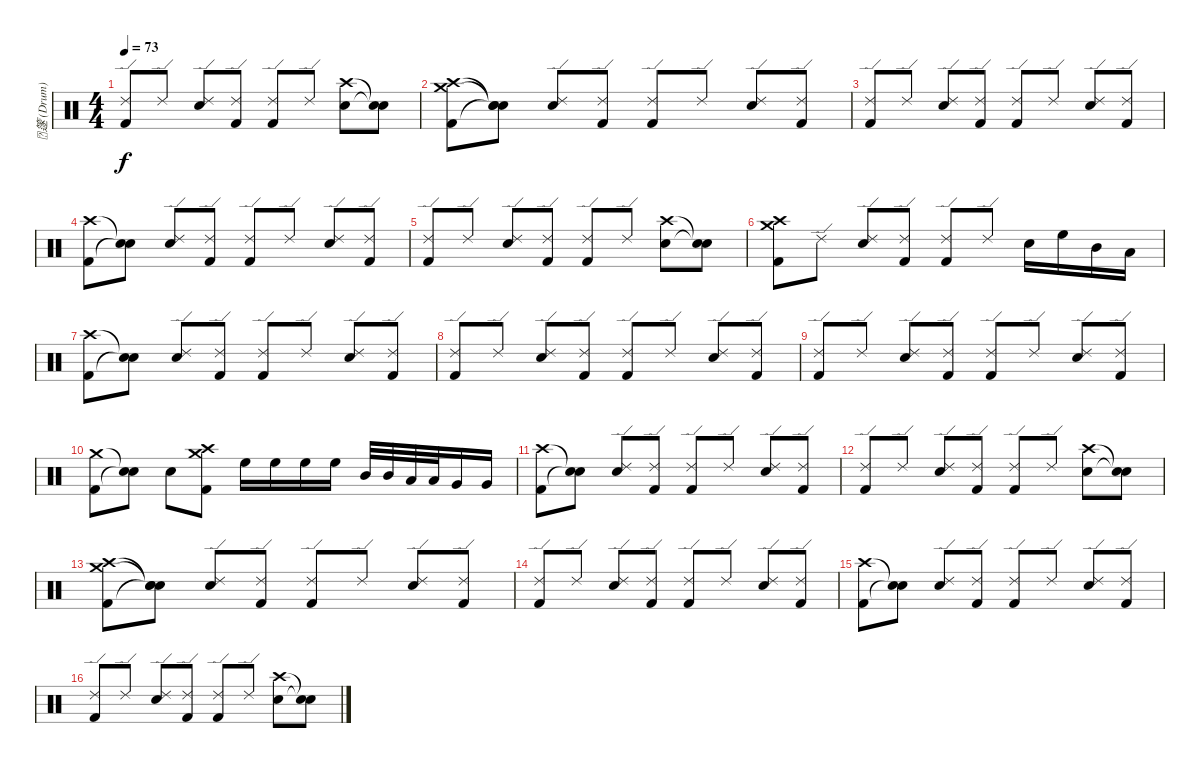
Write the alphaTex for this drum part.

\track ("篴 (Drum)" "篴 (Drum)") {instrument percussion}
\staff {score}
\articulation defaults
\ts (4 4)
\tempo 73
\clef neutral
\ks c
("Ride (edge) 2" "Kick (hit) 2").8{dy f} "Ride (edge) 2".8 ("Ride (edge) 2" "Electric Snare (hit)").8 ("Ride (edge) 2" "Kick (hit) 2").8 ("Ride (edge) 2" "Kick (hit) 2").8 "Ride (edge) 2".8 ("Crash high (hit)" "Electric Snare (hit)").8 ("Snare (hit)"{t} "Snare (hit)"{t}).8 |
("Crash high (hit)" "Crash medium (hit)" "Kick (hit) 2").8 ("Snare (hit)"{t} "Snare (hit)"{t} "Snare (hit)"{t}).8 ("Ride (edge) 2" "Electric Snare (hit)").8 ("Ride (edge) 2" "Kick (hit) 2").8 ("Ride (edge) 2" "Kick (hit) 2").8 "Ride (edge) 2".8 ("Ride (edge) 2" "Electric Snare (hit)").8 ("Ride (edge) 2" "Kick (hit) 2").8 |
("Ride (edge) 2" "Kick (hit) 2").8 "Ride (edge) 2".8 ("Ride (edge) 2" "Electric Snare (hit)").8 ("Ride (edge) 2" "Kick (hit) 2").8 ("Ride (edge) 2" "Kick (hit) 2").8 "Ride (edge) 2".8 ("Ride (edge) 2" "Electric Snare (hit)").8 ("Ride (edge) 2" "Kick (hit) 2").8 |
("Crash high (hit)" "Kick (hit) 2").8 ("Snare (hit)"{t} "Snare (hit)"{t}).8 ("Ride (edge) 2" "Electric Snare (hit)").8 ("Ride (edge) 2" "Kick (hit) 2").8 ("Ride (edge) 2" "Kick (hit) 2").8 "Ride (edge) 2".8 ("Ride (edge) 2" "Electric Snare (hit)").8 ("Ride (edge) 2" "Kick (hit) 2").8 |
("Ride (edge) 2" "Kick (hit) 2").8 "Ride (edge) 2".8 ("Ride (edge) 2" "Electric Snare (hit)").8 ("Ride (edge) 2" "Kick (hit) 2").8 ("Ride (edge) 2" "Kick (hit) 2").8 "Ride (edge) 2".8 ("Crash high (hit)" "Electric Snare (hit)").8 ("Snare (hit)"{t} "Snare (hit)"{t}).8 |
("Crash high (hit)" "Crash medium (hit)" "Kick (hit) 2").8 "Ride (edge) 2".8 ("Ride (edge) 2" "Electric Snare (hit)").8 ("Ride (edge) 2" "Kick (hit) 2").8 ("Ride (edge) 2" "Kick (hit) 2").8 "Ride (edge) 2".8 "Electric Snare (hit)".16 "High Floor Tom (hit)".16 "Mid Tom (hit)".16 "Low Tom (hit)".16 |
("Crash high (hit)" "Kick (hit) 2").8 ("Snare (hit)"{t} "Snare (hit)"{t}).8 ("Ride (edge) 2" "Electric Snare (hit)").8 ("Ride (edge) 2" "Kick (hit) 2").8 ("Ride (edge) 2" "Kick (hit) 2").8 "Ride (edge) 2".8 ("Ride (edge) 2" "Electric Snare (hit)").8 ("Ride (edge) 2" "Kick (hit) 2").8 |
("Ride (edge) 2" "Kick (hit) 2").8 "Ride (edge) 2".8 ("Ride (edge) 2" "Electric Snare (hit)").8 ("Ride (edge) 2" "Kick (hit) 2").8 ("Ride (edge) 2" "Kick (hit) 2").8 "Ride (edge) 2".8 ("Ride (edge) 2" "Electric Snare (hit)").8 ("Ride (edge) 2" "Kick (hit) 2").8 |
("Ride (edge) 2" "Kick (hit) 2").8 "Ride (edge) 2".8 ("Ride (edge) 2" "Electric Snare (hit)").8 ("Ride (edge) 2" "Kick (hit) 2").8 ("Ride (edge) 2" "Kick (hit) 2").8 "Ride (edge) 2".8 ("Ride (edge) 2" "Electric Snare (hit)").8 ("Ride (edge) 2" "Kick (hit) 2").8 |
("Crash medium (hit)" "Kick (hit) 2").8 ("Snare (hit)"{t} "Snare (hit)"{t}).8 "Electric Snare (hit)".8 ("Crash high (hit)" "Crash medium (hit)" "Kick (hit) 2").8 "High Floor Tom (hit)".16 "High Floor Tom (hit)".16 "High Floor Tom (hit)".16 "High Floor Tom (hit)".16 "Mid Tom (hit)".32 "Mid Tom (hit)".32 "Low Tom (hit)".32 "Low Tom (hit)".32 "Very Low Tom (hit)".16 "Very Low Tom (hit)".16 |
("Crash high (hit)" "Kick (hit) 2").8 ("Snare (hit)"{t} "Snare (hit)"{t}).8 ("Ride (edge) 2" "Electric Snare (hit)").8 ("Ride (edge) 2" "Kick (hit) 2").8 ("Ride (edge) 2" "Kick (hit) 2").8 "Ride (edge) 2".8 ("Ride (edge) 2" "Electric Snare (hit)").8 ("Ride (edge) 2" "Kick (hit) 2").8 |
("Ride (edge) 2" "Kick (hit) 2").8 "Ride (edge) 2".8 ("Ride (edge) 2" "Electric Snare (hit)").8 ("Ride (edge) 2" "Kick (hit) 2").8 ("Ride (edge) 2" "Kick (hit) 2").8 "Ride (edge) 2".8 ("Crash high (hit)" "Electric Snare (hit)").8 ("Snare (hit)"{t} "Snare (hit)"{t}).8 |
("Crash high (hit)" "Crash medium (hit)" "Kick (hit) 2").8 ("Snare (hit)"{t} "Snare (hit)"{t} "Snare (hit)"{t}).8 ("Ride (edge) 2" "Electric Snare (hit)").8 ("Ride (edge) 2" "Kick (hit) 2").8 ("Ride (edge) 2" "Kick (hit) 2").8 "Ride (edge) 2".8 ("Ride (edge) 2" "Electric Snare (hit)").8 ("Ride (edge) 2" "Kick (hit) 2").8 |
("Ride (edge) 2" "Kick (hit) 2").8 "Ride (edge) 2".8 ("Ride (edge) 2" "Electric Snare (hit)").8 ("Ride (edge) 2" "Kick (hit) 2").8 ("Ride (edge) 2" "Kick (hit) 2").8 "Ride (edge) 2".8 ("Ride (edge) 2" "Electric Snare (hit)").8 ("Ride (edge) 2" "Kick (hit) 2").8 |
("Crash high (hit)" "Kick (hit) 2").8 ("Snare (hit)"{t} "Snare (hit)"{t}).8 ("Ride (edge) 2" "Electric Snare (hit)").8 ("Ride (edge) 2" "Kick (hit) 2").8 ("Ride (edge) 2" "Kick (hit) 2").8 "Ride (edge) 2".8 ("Ride (edge) 2" "Electric Snare (hit)").8 ("Ride (edge) 2" "Kick (hit) 2").8 |
("Ride (edge) 2" "Kick (hit) 2").8 "Ride (edge) 2".8 ("Ride (edge) 2" "Electric Snare (hit)").8 ("Ride (edge) 2" "Kick (hit) 2").8 ("Ride (edge) 2" "Kick (hit) 2").8 "Ride (edge) 2".8 ("Crash high (hit)" "Electric Snare (hit)").8 ("Snare (hit)"{t} "Snare (hit)"{t}).8
